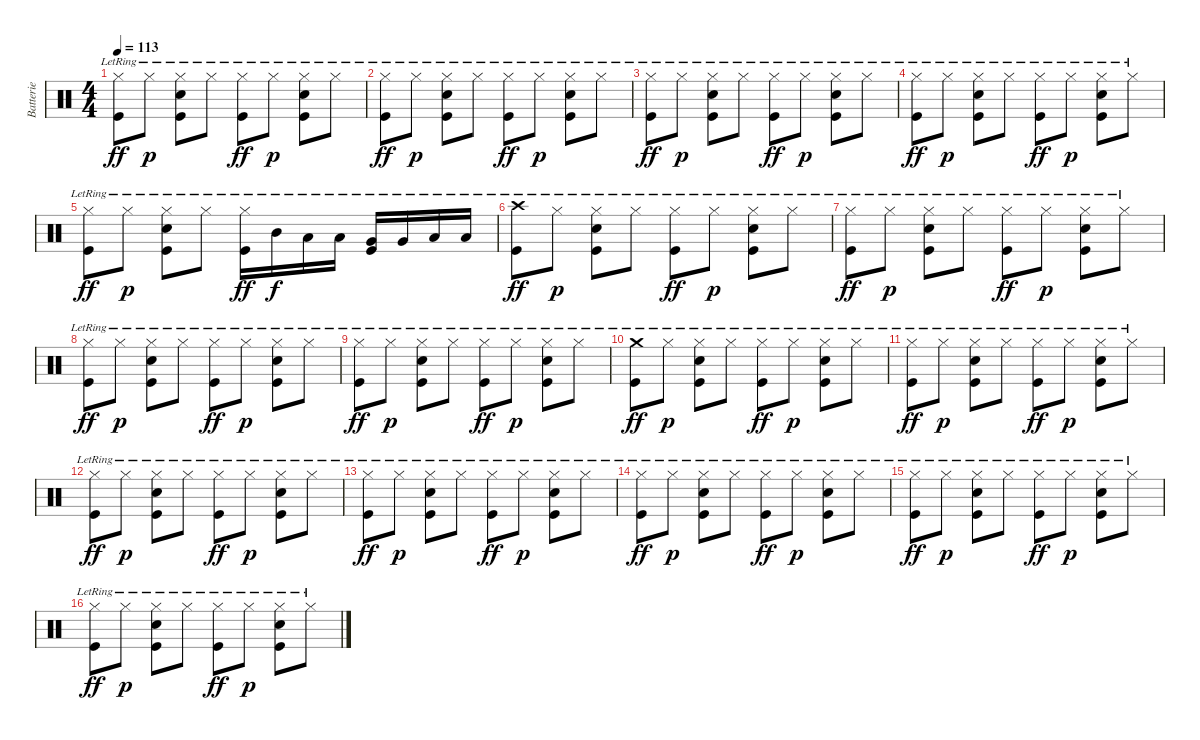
\track ("Batterie" "Batterie") {instrument percussion}
\staff {score}
\articulation defaults
\ts (4 4)
\tempo 113
\clef neutral
\ks c
("Hi-Hat (closed)"{lr} "Kick (hit)"{lr}).8{dy ff} "Hi-Hat (closed)"{lr}.8{dy p} ("Hi-Hat (closed)"{lr} "Snare (hit) 2"{lr} "Kick (hit)"{lr}).8 "Hi-Hat (closed)"{lr}.8 ("Hi-Hat (closed)"{lr} "Kick (hit)"{lr}).8{dy ff} "Hi-Hat (closed)"{lr}.8{dy p} ("Hi-Hat (closed)"{lr} "Snare (hit) 2"{lr} "Kick (hit)"{lr}).8 "Hi-Hat (closed)"{lr}.8 |
("Hi-Hat (closed)"{lr} "Kick (hit)"{lr}).8{dy ff} "Hi-Hat (closed)"{lr}.8{dy p} ("Hi-Hat (closed)"{lr} "Snare (hit) 2"{lr} "Kick (hit)"{lr}).8 "Hi-Hat (closed)"{lr}.8 ("Hi-Hat (closed)"{lr} "Kick (hit)"{lr}).8{dy ff} "Hi-Hat (closed)"{lr}.8{dy p} ("Hi-Hat (closed)"{lr} "Snare (hit) 2"{lr} "Kick (hit)"{lr}).8 "Hi-Hat (closed)"{lr}.8 |
("Hi-Hat (closed)"{lr} "Kick (hit)"{lr}).8{dy ff} "Hi-Hat (closed)"{lr}.8{dy p} ("Hi-Hat (closed)"{lr} "Snare (hit) 2"{lr} "Kick (hit)"{lr}).8 "Hi-Hat (closed)"{lr}.8 ("Hi-Hat (closed)"{lr} "Kick (hit)"{lr}).8{dy ff} "Hi-Hat (closed)"{lr}.8{dy p} ("Hi-Hat (closed)"{lr} "Snare (hit) 2"{lr} "Kick (hit)"{lr}).8 "Hi-Hat (closed)"{lr}.8 |
("Hi-Hat (closed)"{lr} "Kick (hit)"{lr}).8{dy ff} "Hi-Hat (closed)"{lr}.8{dy p} ("Hi-Hat (closed)"{lr} "Snare (hit) 2"{lr} "Kick (hit)"{lr}).8 "Hi-Hat (closed)"{lr}.8 ("Hi-Hat (closed)"{lr} "Kick (hit)"{lr}).8{dy ff} "Hi-Hat (closed)"{lr}.8{dy p} ("Hi-Hat (closed)"{lr} "Snare (hit) 2"{lr} "Kick (hit)"{lr}).8 "Hi-Hat (closed)"{lr}.8 |
("Hi-Hat (closed)"{lr} "Kick (hit)"{lr}).8{dy ff} "Hi-Hat (closed)"{lr}.8{dy p} ("Hi-Hat (closed)"{lr} "Snare (hit) 2"{lr} "Kick (hit)"{lr}).8 "Hi-Hat (closed)"{lr}.8 ("Hi-Hat (closed)"{lr} "Kick (hit)"{lr}).16{dy ff} "Mid Tom (hit)"{lr}.16{dy f} "Low Tom (hit)"{lr}.16 "Low Tom (hit)"{lr}.16 ("Very Low Tom (hit)"{lr} "Kick (hit)"{lr}).16 "Very Low Tom (hit)"{lr}.16 "Low Floor Tom (hit)"{lr}.16 "Low Floor Tom (hit)"{lr}.16 |
("Crash high (hit)"{lr} "Kick (hit)"{lr}).8{dy ff} "Hi-Hat (closed)"{lr}.8{dy p} ("Hi-Hat (closed)"{lr} "Snare (hit) 2"{lr} "Kick (hit)"{lr}).8 "Hi-Hat (closed)"{lr}.8 ("Hi-Hat (closed)"{lr} "Kick (hit)"{lr}).8{dy ff} "Hi-Hat (closed)"{lr}.8{dy p} ("Hi-Hat (closed)"{lr} "Snare (hit) 2"{lr} "Kick (hit)"{lr}).8 "Hi-Hat (closed)"{lr}.8 |
("Hi-Hat (closed)"{lr} "Kick (hit)"{lr}).8{dy ff} "Hi-Hat (closed)"{lr}.8{dy p} ("Hi-Hat (closed)"{lr} "Snare (hit) 2"{lr} "Kick (hit)"{lr}).8 "Hi-Hat (closed)"{lr}.8 ("Hi-Hat (closed)"{lr} "Kick (hit)"{lr}).8{dy ff} "Hi-Hat (closed)"{lr}.8{dy p} ("Hi-Hat (closed)"{lr} "Snare (hit) 2"{lr} "Kick (hit)"{lr}).8 "Hi-Hat (closed)"{lr}.8 |
("Hi-Hat (closed)"{lr} "Kick (hit)"{lr}).8{dy ff} "Hi-Hat (closed)"{lr}.8{dy p} ("Hi-Hat (closed)"{lr} "Snare (hit) 2"{lr} "Kick (hit)"{lr}).8 "Hi-Hat (closed)"{lr}.8 ("Hi-Hat (closed)"{lr} "Kick (hit)"{lr}).8{dy ff} "Hi-Hat (closed)"{lr}.8{dy p} ("Hi-Hat (closed)"{lr} "Snare (hit) 2"{lr} "Kick (hit)"{lr}).8 "Hi-Hat (closed)"{lr}.8 |
("Hi-Hat (closed)"{lr} "Kick (hit)"{lr}).8{dy ff} "Hi-Hat (closed)"{lr}.8{dy p} ("Hi-Hat (closed)"{lr} "Snare (hit) 2"{lr} "Kick (hit)"{lr}).8 "Hi-Hat (closed)"{lr}.8 ("Hi-Hat (closed)"{lr} "Kick (hit)"{lr}).8{dy ff} "Hi-Hat (closed)"{lr}.8{dy p} ("Hi-Hat (closed)"{lr} "Snare (hit) 2"{lr} "Kick (hit)"{lr}).8 "Hi-Hat (closed)"{lr}.8 |
("Crash medium (hit)"{lr} "Kick (hit)"{lr}).8{dy ff} "Hi-Hat (closed)"{lr}.8{dy p} ("Hi-Hat (closed)"{lr} "Snare (hit) 2"{lr} "Kick (hit)"{lr}).8 "Hi-Hat (closed)"{lr}.8 ("Hi-Hat (closed)"{lr} "Kick (hit)"{lr}).8{dy ff} "Hi-Hat (closed)"{lr}.8{dy p} ("Hi-Hat (closed)"{lr} "Snare (hit) 2"{lr} "Kick (hit)"{lr}).8 "Hi-Hat (closed)"{lr}.8 |
("Hi-Hat (closed)"{lr} "Kick (hit)"{lr}).8{dy ff} "Hi-Hat (closed)"{lr}.8{dy p} ("Hi-Hat (closed)"{lr} "Snare (hit) 2"{lr} "Kick (hit)"{lr}).8 "Hi-Hat (closed)"{lr}.8 ("Hi-Hat (closed)"{lr} "Kick (hit)"{lr}).8{dy ff} "Hi-Hat (closed)"{lr}.8{dy p} ("Hi-Hat (closed)"{lr} "Snare (hit) 2"{lr} "Kick (hit)"{lr}).8 "Hi-Hat (closed)"{lr}.8 |
("Hi-Hat (closed)"{lr} "Kick (hit)"{lr}).8{dy ff} "Hi-Hat (closed)"{lr}.8{dy p} ("Hi-Hat (closed)"{lr} "Snare (hit) 2"{lr} "Kick (hit)"{lr}).8 "Hi-Hat (closed)"{lr}.8 ("Hi-Hat (closed)"{lr} "Kick (hit)"{lr}).8{dy ff} "Hi-Hat (closed)"{lr}.8{dy p} ("Hi-Hat (closed)"{lr} "Snare (hit) 2"{lr} "Kick (hit)"{lr}).8 "Hi-Hat (closed)"{lr}.8 |
("Hi-Hat (closed)"{lr} "Kick (hit)"{lr}).8{dy ff} "Hi-Hat (closed)"{lr}.8{dy p} ("Hi-Hat (closed)"{lr} "Snare (hit) 2"{lr} "Kick (hit)"{lr}).8 "Hi-Hat (closed)"{lr}.8 ("Hi-Hat (closed)"{lr} "Kick (hit)"{lr}).8{dy ff} "Hi-Hat (closed)"{lr}.8{dy p} ("Hi-Hat (closed)"{lr} "Snare (hit) 2"{lr} "Kick (hit)"{lr}).8 "Hi-Hat (closed)"{lr}.8 |
("Hi-Hat (closed)"{lr} "Kick (hit)"{lr}).8{dy ff} "Hi-Hat (closed)"{lr}.8{dy p} ("Hi-Hat (closed)"{lr} "Snare (hit) 2"{lr} "Kick (hit)"{lr}).8 "Hi-Hat (closed)"{lr}.8 ("Hi-Hat (closed)"{lr} "Kick (hit)"{lr}).8{dy ff} "Hi-Hat (closed)"{lr}.8{dy p} ("Hi-Hat (closed)"{lr} "Snare (hit) 2"{lr} "Kick (hit)"{lr}).8 "Hi-Hat (closed)"{lr}.8 |
("Hi-Hat (closed)"{lr} "Kick (hit)"{lr}).8{dy ff} "Hi-Hat (closed)"{lr}.8{dy p} ("Hi-Hat (closed)"{lr} "Snare (hit) 2"{lr} "Kick (hit)"{lr}).8 "Hi-Hat (closed)"{lr}.8 ("Hi-Hat (closed)"{lr} "Kick (hit)"{lr}).8{dy ff} "Hi-Hat (closed)"{lr}.8{dy p} ("Hi-Hat (closed)"{lr} "Snare (hit) 2"{lr} "Kick (hit)"{lr}).8 "Hi-Hat (closed)"{lr}.8 |
("Hi-Hat (closed)"{lr} "Kick (hit)"{lr}).8{dy ff} "Hi-Hat (closed)"{lr}.8{dy p} ("Hi-Hat (closed)"{lr} "Snare (hit) 2"{lr} "Kick (hit)"{lr}).8 "Hi-Hat (closed)"{lr}.8 ("Hi-Hat (closed)"{lr} "Kick (hit)"{lr}).8{dy ff} "Hi-Hat (closed)"{lr}.8{dy p} ("Hi-Hat (closed)"{lr} "Snare (hit) 2"{lr} "Kick (hit)"{lr}).8 "Hi-Hat (closed)"{lr}.8
